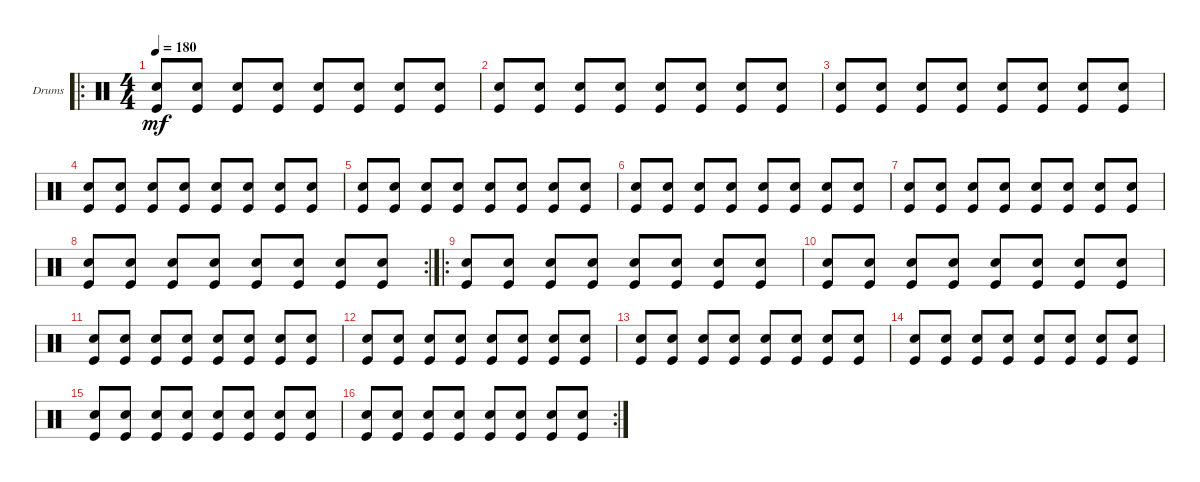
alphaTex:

\defaultSystemsLayout 4
\bracketExtendMode groupsimilarinstruments
\firstSystemTrackNameOrientation horizontal
\otherSystemsTrackNameOrientation horizontal
\track ("Drumkit" "Drums") {instrument percussion}
\staff {score}
\articulation defaults
\ro
\ts (4 4)
\tempo 180
\clef neutral
\scale
0.502222
\ks c
("Snare (hit) 2" "Kick (hit)").8{dy mf} ("Snare (hit) 2" "Kick (hit)").8 ("Snare (hit) 2" "Kick (hit)").8 ("Snare (hit) 2" "Kick (hit)").8 ("Snare (hit) 2" "Kick (hit)").8 ("Snare (hit) 2" "Kick (hit)").8 ("Snare (hit) 2" "Kick (hit)").8 ("Snare (hit) 2" "Kick (hit)").8 |
\scale
0.248889 ("Snare (hit) 2" "Kick (hit)").8 ("Snare (hit) 2" "Kick (hit)").8 ("Snare (hit) 2" "Kick (hit)").8 ("Snare (hit) 2" "Kick (hit)").8 ("Snare (hit) 2" "Kick (hit)").8 ("Snare (hit) 2" "Kick (hit)").8 ("Snare (hit) 2" "Kick (hit)").8 ("Snare (hit) 2" "Kick (hit)").8 |
\scale
0.248889 ("Snare (hit) 2" "Kick (hit)").8 ("Snare (hit) 2" "Kick (hit)").8 ("Snare (hit) 2" "Kick (hit)").8 ("Snare (hit) 2" "Kick (hit)").8 ("Snare (hit) 2" "Kick (hit)").8 ("Snare (hit) 2" "Kick (hit)").8 ("Snare (hit) 2" "Kick (hit)").8 ("Snare (hit) 2" "Kick (hit)").8 |
\scale
0.333333 ("Snare (hit) 2" "Kick (hit)").8 ("Snare (hit) 2" "Kick (hit)").8 ("Snare (hit) 2" "Kick (hit)").8 ("Snare (hit) 2" "Kick (hit)").8 ("Snare (hit) 2" "Kick (hit)").8 ("Snare (hit) 2" "Kick (hit)").8 ("Snare (hit) 2" "Kick (hit)").8 ("Snare (hit) 2" "Kick (hit)").8 |
\scale
0.333333 ("Snare (hit) 2" "Kick (hit)").8 ("Snare (hit) 2" "Kick (hit)").8 ("Snare (hit) 2" "Kick (hit)").8 ("Snare (hit) 2" "Kick (hit)").8 ("Snare (hit) 2" "Kick (hit)").8 ("Snare (hit) 2" "Kick (hit)").8 ("Snare (hit) 2" "Kick (hit)").8 ("Snare (hit) 2" "Kick (hit)").8 |
\scale
0.333333 ("Snare (hit) 2" "Kick (hit)").8 ("Snare (hit) 2" "Kick (hit)").8 ("Snare (hit) 2" "Kick (hit)").8 ("Snare (hit) 2" "Kick (hit)").8 ("Snare (hit) 2" "Kick (hit)").8 ("Snare (hit) 2" "Kick (hit)").8 ("Snare (hit) 2" "Kick (hit)").8 ("Snare (hit) 2" "Kick (hit)").8 |
\scale
0.301075 ("Snare (hit) 2" "Kick (hit)").8 ("Snare (hit) 2" "Kick (hit)").8 ("Snare (hit) 2" "Kick (hit)").8 ("Snare (hit) 2" "Kick (hit)").8 ("Snare (hit) 2" "Kick (hit)").8 ("Snare (hit) 2" "Kick (hit)").8 ("Snare (hit) 2" "Kick (hit)").8 ("Snare (hit) 2" "Kick (hit)").8 |
\rc 2
\scale
0.333333 ("Snare (hit) 2" "Kick (hit)").8 ("Snare (hit) 2" "Kick (hit)").8 ("Snare (hit) 2" "Kick (hit)").8 ("Snare (hit) 2" "Kick (hit)").8 ("Snare (hit) 2" "Kick (hit)").8 ("Snare (hit) 2" "Kick (hit)").8 ("Snare (hit) 2" "Kick (hit)").8 ("Snare (hit) 2" "Kick (hit)").8 |
\ro
\scale
0.365591 ("Snare (hit) 2" "Kick (hit)").8 ("Snare (hit) 2" "Kick (hit)").8 ("Snare (hit) 2" "Kick (hit)").8 ("Snare (hit) 2" "Kick (hit)").8 ("Snare (hit) 2" "Kick (hit)").8 ("Snare (hit) 2" "Kick (hit)").8 ("Snare (hit) 2" "Kick (hit)").8 ("Snare (hit) 2" "Kick (hit)").8 |
\scale
0.333333 ("Snare (hit) 2" "Kick (hit)").8 ("Snare (hit) 2" "Kick (hit)").8 ("Snare (hit) 2" "Kick (hit)").8 ("Snare (hit) 2" "Kick (hit)").8 ("Snare (hit) 2" "Kick (hit)").8 ("Snare (hit) 2" "Kick (hit)").8 ("Snare (hit) 2" "Kick (hit)").8 ("Snare (hit) 2" "Kick (hit)").8 |
\scale
0.333333 ("Snare (hit) 2" "Kick (hit)").8 ("Snare (hit) 2" "Kick (hit)").8 ("Snare (hit) 2" "Kick (hit)").8 ("Snare (hit) 2" "Kick (hit)").8 ("Snare (hit) 2" "Kick (hit)").8 ("Snare (hit) 2" "Kick (hit)").8 ("Snare (hit) 2" "Kick (hit)").8 ("Snare (hit) 2" "Kick (hit)").8 |
\scale
0.333333 ("Snare (hit) 2" "Kick (hit)").8 ("Snare (hit) 2" "Kick (hit)").8 ("Snare (hit) 2" "Kick (hit)").8 ("Snare (hit) 2" "Kick (hit)").8 ("Snare (hit) 2" "Kick (hit)").8 ("Snare (hit) 2" "Kick (hit)").8 ("Snare (hit) 2" "Kick (hit)").8 ("Snare (hit) 2" "Kick (hit)").8 |
\scale
0.333333 ("Snare (hit) 2" "Kick (hit)").8 ("Snare (hit) 2" "Kick (hit)").8 ("Snare (hit) 2" "Kick (hit)").8 ("Snare (hit) 2" "Kick (hit)").8 ("Snare (hit) 2" "Kick (hit)").8 ("Snare (hit) 2" "Kick (hit)").8 ("Snare (hit) 2" "Kick (hit)").8 ("Snare (hit) 2" "Kick (hit)").8 |
\scale
0.333333 ("Snare (hit) 2" "Kick (hit)").8 ("Snare (hit) 2" "Kick (hit)").8 ("Snare (hit) 2" "Kick (hit)").8 ("Snare (hit) 2" "Kick (hit)").8 ("Snare (hit) 2" "Kick (hit)").8 ("Snare (hit) 2" "Kick (hit)").8 ("Snare (hit) 2" "Kick (hit)").8 ("Snare (hit) 2" "Kick (hit)").8 |
\scale
0.333333 ("Snare (hit) 2" "Kick (hit)").8 ("Snare (hit) 2" "Kick (hit)").8 ("Snare (hit) 2" "Kick (hit)").8 ("Snare (hit) 2" "Kick (hit)").8 ("Snare (hit) 2" "Kick (hit)").8 ("Snare (hit) 2" "Kick (hit)").8 ("Snare (hit) 2" "Kick (hit)").8 ("Snare (hit) 2" "Kick (hit)").8 |
\rc 2
\scale
0.333333 ("Snare (hit) 2" "Kick (hit)").8 ("Snare (hit) 2" "Kick (hit)").8 ("Snare (hit) 2" "Kick (hit)").8 ("Snare (hit) 2" "Kick (hit)").8 ("Snare (hit) 2" "Kick (hit)").8 ("Snare (hit) 2" "Kick (hit)").8 ("Snare (hit) 2" "Kick (hit)").8 ("Snare (hit) 2" "Kick (hit)").8
